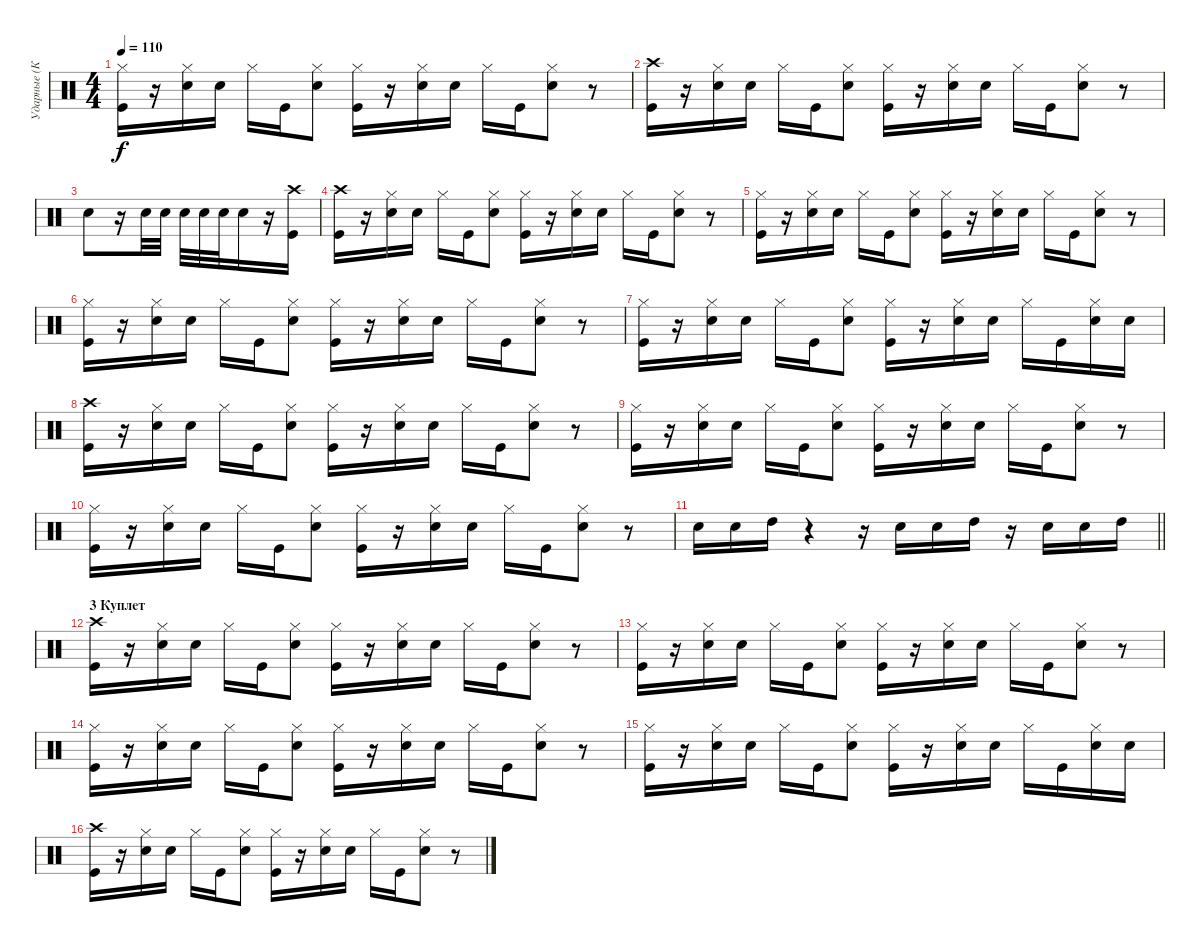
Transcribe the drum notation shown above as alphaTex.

\track ("Ударные (Коля Лысов" "Ударные (К") {instrument percussion}
\staff {score}
\articulation defaults
\ts (4 4)
\tempo 110
\clef neutral
\ks c
("Kick (hit)" "Hi-Hat (closed)").16{dy f} r.16 ("Snare (hit) 2" "Hi-Hat (closed)").16 "Snare (hit) 2".16 "Hi-Hat (closed)".16 "Kick (hit)".16 ("Snare (hit) 2" "Hi-Hat (closed)").8 ("Kick (hit)" "Hi-Hat (closed)").16 r.16 ("Snare (hit) 2" "Hi-Hat (closed)").16 "Snare (hit) 2".16 "Hi-Hat (closed)".16 "Kick (hit)".16 ("Snare (hit) 2" "Hi-Hat (closed)").8 r.8 |
("Kick (hit)" "Crash high (hit)").16 r.16 ("Snare (hit) 2" "Hi-Hat (closed)").16 "Snare (hit) 2".16 "Hi-Hat (closed)".16 "Kick (hit)".16 ("Snare (hit) 2" "Hi-Hat (closed)").8 ("Kick (hit)" "Hi-Hat (closed)").16 r.16 ("Snare (hit) 2" "Hi-Hat (closed)").16 "Snare (hit) 2".16 "Hi-Hat (closed)".16 "Kick (hit)".16 ("Snare (hit) 2" "Hi-Hat (closed)").8 r.8 |
"Snare (hit) 2".8 r.16 "Snare (hit) 2".32 "Snare (hit) 2".32 "Snare (hit) 2".32 "Snare (hit) 2".32 "Snare (hit) 2".32 "Snare (hit) 2".16 r.16 ("Kick (hit)" "Crash high (hit)").16 |
("Kick (hit)" "Crash high (hit)").16 r.16 ("Snare (hit) 2" "Hi-Hat (closed)").16 "Snare (hit) 2".16 "Hi-Hat (closed)".16 "Kick (hit)".16 ("Snare (hit) 2" "Hi-Hat (closed)").8 ("Kick (hit)" "Hi-Hat (closed)").16 r.16 ("Snare (hit) 2" "Hi-Hat (closed)").16 "Snare (hit) 2".16 "Hi-Hat (closed)".16 "Kick (hit)".16 ("Snare (hit) 2" "Hi-Hat (closed)").8 r.8 |
("Kick (hit)" "Hi-Hat (closed)").16 r.16 ("Snare (hit) 2" "Hi-Hat (closed)").16 "Snare (hit) 2".16 "Hi-Hat (closed)".16 "Kick (hit)".16 ("Snare (hit) 2" "Hi-Hat (closed)").8 ("Kick (hit)" "Hi-Hat (closed)").16 r.16 ("Snare (hit) 2" "Hi-Hat (closed)").16 "Snare (hit) 2".16 "Hi-Hat (closed)".16 "Kick (hit)".16 ("Snare (hit) 2" "Hi-Hat (closed)").8 r.8 |
("Kick (hit)" "Hi-Hat (closed)").16 r.16 ("Snare (hit) 2" "Hi-Hat (closed)").16 "Snare (hit) 2".16 "Hi-Hat (closed)".16 "Kick (hit)".16 ("Snare (hit) 2" "Hi-Hat (closed)").8 ("Kick (hit)" "Hi-Hat (closed)").16 r.16 ("Snare (hit) 2" "Hi-Hat (closed)").16 "Snare (hit) 2".16 "Hi-Hat (closed)".16 "Kick (hit)".16 ("Snare (hit) 2" "Hi-Hat (closed)").8 r.8 |
("Kick (hit)" "Hi-Hat (closed)").16 r.16 ("Snare (hit) 2" "Hi-Hat (closed)").16 "Snare (hit) 2".16 "Hi-Hat (closed)".16 "Kick (hit)".16 ("Snare (hit) 2" "Hi-Hat (closed)").8 ("Kick (hit)" "Hi-Hat (closed)").16 r.16 ("Snare (hit) 2" "Hi-Hat (closed)").16 "Snare (hit) 2".16 "Hi-Hat (closed)".16 "Kick (hit)".16 ("Snare (hit) 2" "Hi-Hat (closed)").16 "Snare (hit) 2".16 |
("Kick (hit)" "Crash high (hit)").16 r.16 ("Snare (hit) 2" "Hi-Hat (closed)").16 "Snare (hit) 2".16 "Hi-Hat (closed)".16 "Kick (hit)".16 ("Snare (hit) 2" "Hi-Hat (closed)").8 ("Kick (hit)" "Hi-Hat (closed)").16 r.16 ("Snare (hit) 2" "Hi-Hat (closed)").16 "Snare (hit) 2".16 "Hi-Hat (closed)".16 "Kick (hit)".16 ("Snare (hit) 2" "Hi-Hat (closed)").8 r.8 |
("Kick (hit)" "Hi-Hat (closed)").16 r.16 ("Snare (hit) 2" "Hi-Hat (closed)").16 "Snare (hit) 2".16 "Hi-Hat (closed)".16 "Kick (hit)".16 ("Snare (hit) 2" "Hi-Hat (closed)").8 ("Kick (hit)" "Hi-Hat (closed)").16 r.16 ("Snare (hit) 2" "Hi-Hat (closed)").16 "Snare (hit) 2".16 "Hi-Hat (closed)".16 "Kick (hit)".16 ("Snare (hit) 2" "Hi-Hat (closed)").8 r.8 |
("Kick (hit)" "Hi-Hat (closed)").16 r.16 ("Snare (hit) 2" "Hi-Hat (closed)").16 "Snare (hit) 2".16 "Hi-Hat (closed)".16 "Kick (hit)".16 ("Snare (hit) 2" "Hi-Hat (closed)").8 ("Kick (hit)" "Hi-Hat (closed)").16 r.16 ("Snare (hit) 2" "Hi-Hat (closed)").16 "Snare (hit) 2".16 "Hi-Hat (closed)".16 "Kick (hit)".16 ("Snare (hit) 2" "Hi-Hat (closed)").8 r.8 |
\barLineRight lightlight "Snare (hit) 2".16 "Snare (hit) 2".16 "High Tom (hit)".16
r.4 r.16 "Snare (hit) 2".16 "Snare (hit) 2".16 "High Tom (hit)".16 r.16 "Snare (hit) 2".16 "Snare (hit) 2".16 "High Tom (hit)".16 |
\section ("" "3 Куплет")
("Kick (hit)" "Crash high (hit)").16 r.16 ("Snare (hit) 2" "Hi-Hat (closed)").16 "Snare (hit) 2".16 "Hi-Hat (closed)".16 "Kick (hit)".16 ("Snare (hit) 2" "Hi-Hat (closed)").8 ("Kick (hit)" "Hi-Hat (closed)").16 r.16 ("Snare (hit) 2" "Hi-Hat (closed)").16 "Snare (hit) 2".16 "Hi-Hat (closed)".16 "Kick (hit)".16 ("Snare (hit) 2" "Hi-Hat (closed)").8 r.8 |
("Kick (hit)" "Hi-Hat (closed)").16 r.16 ("Snare (hit) 2" "Hi-Hat (closed)").16 "Snare (hit) 2".16 "Hi-Hat (closed)".16 "Kick (hit)".16 ("Snare (hit) 2" "Hi-Hat (closed)").8 ("Kick (hit)" "Hi-Hat (closed)").16 r.16 ("Snare (hit) 2" "Hi-Hat (closed)").16 "Snare (hit) 2".16 "Hi-Hat (closed)".16 "Kick (hit)".16 ("Snare (hit) 2" "Hi-Hat (closed)").8 r.8 |
("Kick (hit)" "Hi-Hat (closed)").16 r.16 ("Snare (hit) 2" "Hi-Hat (closed)").16 "Snare (hit) 2".16 "Hi-Hat (closed)".16 "Kick (hit)".16 ("Snare (hit) 2" "Hi-Hat (closed)").8 ("Kick (hit)" "Hi-Hat (closed)").16 r.16 ("Snare (hit) 2" "Hi-Hat (closed)").16 "Snare (hit) 2".16 "Hi-Hat (closed)".16 "Kick (hit)".16 ("Snare (hit) 2" "Hi-Hat (closed)").8 r.8 |
("Kick (hit)" "Hi-Hat (closed)").16 r.16 ("Snare (hit) 2" "Hi-Hat (closed)").16 "Snare (hit) 2".16 "Hi-Hat (closed)".16 "Kick (hit)".16 ("Snare (hit) 2" "Hi-Hat (closed)").8 ("Kick (hit)" "Hi-Hat (closed)").16 r.16 ("Snare (hit) 2" "Hi-Hat (closed)").16 "Snare (hit) 2".16 "Hi-Hat (closed)".16 "Kick (hit)".16 ("Snare (hit) 2" "Hi-Hat (closed)").16 "Snare (hit) 2".16 |
("Kick (hit)" "Crash high (hit)").16 r.16 ("Snare (hit) 2" "Hi-Hat (closed)").16 "Snare (hit) 2".16 "Hi-Hat (closed)".16 "Kick (hit)".16 ("Snare (hit) 2" "Hi-Hat (closed)").8 ("Kick (hit)" "Hi-Hat (closed)").16 r.16 ("Snare (hit) 2" "Hi-Hat (closed)").16 "Snare (hit) 2".16 "Hi-Hat (closed)".16 "Kick (hit)".16 ("Snare (hit) 2" "Hi-Hat (closed)").8 r.8
